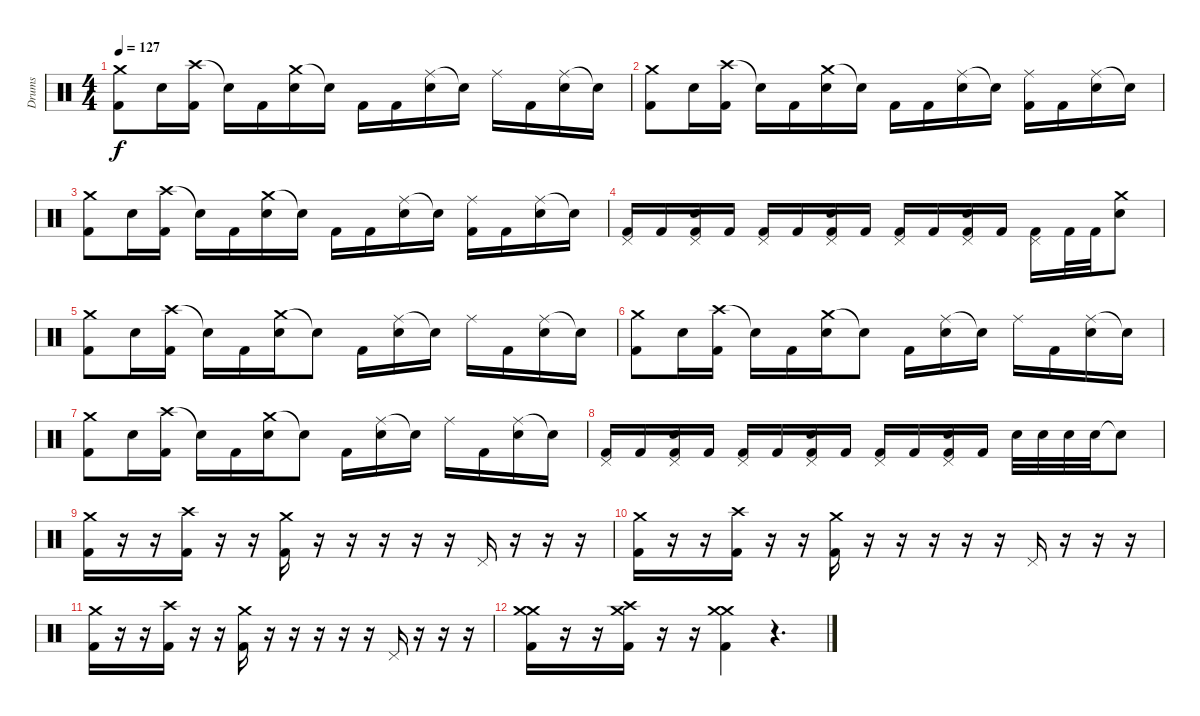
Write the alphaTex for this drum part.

\track ("Drums" "Drums") {instrument percussion}
\staff {score}
\articulation defaults
\ts (4 4)
\tempo 127
\clef neutral
\ks c
("Crash medium (hit)" "Kick (hit) 2").8{dy f} "Electric Snare (hit)".16 ("Crash high (hit)" "Kick (hit) 2").16 "Snare (hit)"{t}.16 "Kick (hit) 2".16 ("Crash medium (hit)" "Electric Snare (hit)").16 "Snare (hit)"{t}.16 "Kick (hit) 2".16 "Kick (hit) 2".16 ("Ride (middle)" "Electric Snare (hit)").16 "Snare (hit)"{t}.16 "Ride (middle)".16 "Kick (hit) 2".16 ("Ride (middle)" "Electric Snare (hit)").16 "Snare (hit)"{t}.16 |
("Crash medium (hit)" "Kick (hit) 2").8 "Electric Snare (hit)".16 ("Crash high (hit)" "Kick (hit) 2").16 "Snare (hit)"{t}.16 "Kick (hit) 2".16 ("Crash medium (hit)" "Electric Snare (hit)").16 "Snare (hit)"{t}.16 "Kick (hit) 2".16 "Kick (hit) 2".16 ("Ride (middle)" "Electric Snare (hit)").16 "Snare (hit)"{t}.16 ("Ride (middle)" "Kick (hit) 2").16 "Kick (hit) 2".16 ("Ride (middle)" "Electric Snare (hit)").16 "Snare (hit)"{t}.16 |
("Crash medium (hit)" "Kick (hit) 2").8 "Electric Snare (hit)".16 ("Crash high (hit)" "Kick (hit) 2").16 "Snare (hit)"{t}.16 "Kick (hit) 2".16 ("Crash medium (hit)" "Electric Snare (hit)").16 "Snare (hit)"{t}.16 "Kick (hit) 2".16 "Kick (hit) 2".16 ("Ride (middle)" "Electric Snare (hit)").16 "Snare (hit)"{t}.16 ("Ride (middle)" "Kick (hit) 2").16 "Kick (hit) 2".16 ("Ride (middle)" "Electric Snare (hit)").16 "Snare (hit)"{t}.16 |
("Pedal Hi-Hat (hit)" "Kick (hit) 2").16 "Kick (hit) 2".16 ("Pedal Hi-Hat (hit)" "Electric Snare (hit)" "Kick (hit) 2").16 "Kick (hit) 2".16 ("Pedal Hi-Hat (hit)" "Kick (hit) 2").16 "Kick (hit) 2".16 ("Pedal Hi-Hat (hit)" "Electric Snare (hit)" "Kick (hit) 2").16 "Kick (hit) 2".16 ("Pedal Hi-Hat (hit)" "Kick (hit) 2").16 "Kick (hit) 2".16 ("Pedal Hi-Hat (hit)" "Electric Snare (hit)" "Kick (hit) 2").16 "Kick (hit) 2".16 ("Pedal Hi-Hat (hit)" "Kick (hit) 2").16 "Kick (hit) 2".32 "Kick (hit) 2".32 ("Crash medium (hit)" "Electric Snare (hit)").8 |
("Crash medium (hit)" "Kick (hit) 2").8 "Electric Snare (hit)".16 ("Crash high (hit)" "Kick (hit) 2").16 "Snare (hit)"{t}.16 "Kick (hit) 2".16 ("Crash medium (hit)" "Electric Snare (hit)").16 "Snare (hit)"{t}.8 "Kick (hit) 2".16 ("Ride (middle)" "Electric Snare (hit)").16 "Snare (hit)"{t}.16 "Ride (middle)".16 "Kick (hit) 2".16 ("Ride (middle)" "Electric Snare (hit)").16 "Snare (hit)"{t}.16 |
("Crash medium (hit)" "Kick (hit) 2").8 "Electric Snare (hit)".16 ("Crash high (hit)" "Kick (hit) 2").16 "Snare (hit)"{t}.16 "Kick (hit) 2".16 ("Crash medium (hit)" "Electric Snare (hit)").16 "Snare (hit)"{t}.8 "Kick (hit) 2".16 ("Ride (middle)" "Electric Snare (hit)").16 "Snare (hit)"{t}.16 "Ride (middle)".16 "Kick (hit) 2".16 ("Ride (middle)" "Electric Snare (hit)").16 "Snare (hit)"{t}.16 |
("Crash medium (hit)" "Kick (hit) 2").8 "Electric Snare (hit)".16 ("Crash high (hit)" "Kick (hit) 2").16 "Snare (hit)"{t}.16 "Kick (hit) 2".16 ("Crash medium (hit)" "Electric Snare (hit)").16 "Snare (hit)"{t}.8 "Kick (hit) 2".16 ("Ride (middle)" "Electric Snare (hit)").16 "Snare (hit)"{t}.16 "Ride (middle)".16 "Kick (hit) 2".16 ("Ride (middle)" "Electric Snare (hit)").16 "Snare (hit)"{t}.16 |
("Pedal Hi-Hat (hit)" "Kick (hit) 2").16 "Kick (hit) 2".16 ("Pedal Hi-Hat (hit)" "Electric Snare (hit)" "Kick (hit) 2").16 "Kick (hit) 2".16 ("Pedal Hi-Hat (hit)" "Kick (hit) 2").16 "Kick (hit) 2".16 ("Pedal Hi-Hat (hit)" "Electric Snare (hit)" "Kick (hit) 2").16 "Kick (hit) 2".16 ("Pedal Hi-Hat (hit)" "Kick (hit) 2").16 "Kick (hit) 2".16 ("Pedal Hi-Hat (hit)" "Electric Snare (hit)" "Kick (hit) 2").16 "Kick (hit) 2".16 "Electric Snare (hit)".32 "Electric Snare (hit)".32 "Electric Snare (hit)".32 "Electric Snare (hit)".32 "Snare (hit)"{t}.8 |
("Crash medium (hit)" "Kick (hit) 2").16 r.16 r.16 ("Crash high (hit)" "Kick (hit) 2").16 r.16 r.16 ("Crash medium (hit)" "Kick (hit) 2").16 r.16 r.16 r.16 r.16 r.16 "Pedal Hi-Hat (hit)".16 r.16 r.16 r.16 |
("Crash medium (hit)" "Kick (hit) 2").16 r.16 r.16 ("Crash high (hit)" "Kick (hit) 2").16 r.16 r.16 ("Crash medium (hit)" "Kick (hit) 2").16 r.16 r.16 r.16 r.16 r.16 "Pedal Hi-Hat (hit)".16 r.16 r.16 r.16 |
("Crash medium (hit)" "Kick (hit) 2").16 r.16 r.16 ("Crash high (hit)" "Kick (hit) 2").16 r.16 r.16 ("Crash medium (hit)" "Kick (hit) 2").16 r.16 r.16 r.16 r.16 r.16 "Pedal Hi-Hat (hit)".16 r.16 r.16 r.16 |
("Crash medium (hit)" "Crash medium (hit)" "Kick (hit) 2").16 r.16 r.16 ("Crash medium (hit)" "Crash high (hit)" "Kick (hit) 2").16 r.16 r.16 ("Crash medium (hit)" "Crash medium (hit)" "Kick (hit) 2").4 r.4{d}
